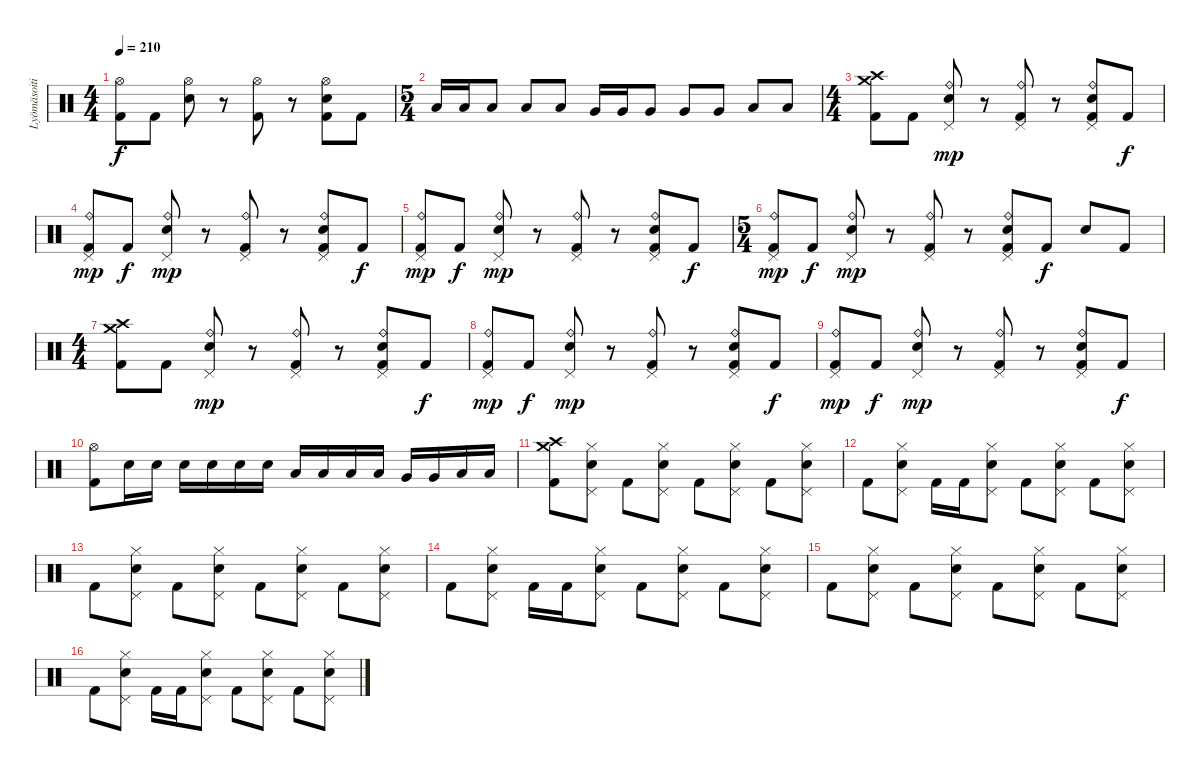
\track ("Lyömäsoitin" "Lyömäsoiti") {instrument percussion}
\staff {score}
\articulation defaults
\ts (4 4)
\tempo 210
\clef neutral
\ks c
("Hi-Hat (open)" "Kick (hit) 2").8{dy f} "Kick (hit) 2".8 ("Hi-Hat (open)" "Electric Snare (hit)").8 r.8 ("Hi-Hat (open)" "Kick (hit) 2").8 r.8 ("Hi-Hat (open)" "Electric Snare (hit)" "Kick (hit) 2").8 "Kick (hit) 2".8 |
\ts (5 4)
"Low Tom (hit)".16 "Low Tom (hit)".16 "Low Tom (hit)".8 "Low Tom (hit)".8 "Low Tom (hit)".8 "Very Low Tom (hit)".16 "Very Low Tom (hit)".16 "Very Low Tom (hit)".8 "Very Low Tom (hit)".8 "Very Low Tom (hit)".8 "Low Floor Tom (hit)".8 "Low Floor Tom (hit)".8 |
\ts (4 4)
("Crash medium (hit)" "Crash high (hit)" "Kick (hit) 2").8 "Kick (hit) 2".8 ("Ride (bell)" "Pedal Hi-Hat (hit)" "Electric Snare (hit)").8{dy mp} r.8 ("Ride (bell)" "Pedal Hi-Hat (hit)" "Kick (hit) 2").8 r.8 ("Ride (bell)" "Pedal Hi-Hat (hit)" "Electric Snare (hit)" "Kick (hit) 2").8 "Kick (hit) 2".8{dy f} |
("Ride (bell)" "Pedal Hi-Hat (hit)" "Kick (hit) 2").8{dy mp} "Kick (hit) 2".8{dy f} ("Ride (bell)" "Pedal Hi-Hat (hit)" "Electric Snare (hit)").8{dy mp} r.8 ("Ride (bell)" "Pedal Hi-Hat (hit)" "Kick (hit) 2").8 r.8 ("Ride (bell)" "Pedal Hi-Hat (hit)" "Electric Snare (hit)" "Kick (hit) 2").8 "Kick (hit) 2".8{dy f} |
("Ride (bell)" "Pedal Hi-Hat (hit)" "Kick (hit) 2").8{dy mp} "Kick (hit) 2".8{dy f} ("Ride (bell)" "Pedal Hi-Hat (hit)" "Electric Snare (hit)").8{dy mp} r.8 ("Ride (bell)" "Pedal Hi-Hat (hit)" "Kick (hit) 2").8 r.8 ("Ride (bell)" "Pedal Hi-Hat (hit)" "Electric Snare (hit)" "Kick (hit) 2").8 "Kick (hit) 2".8{dy f} |
\ts (5 4)
("Ride (bell)" "Pedal Hi-Hat (hit)" "Kick (hit) 2").8{dy mp} "Kick (hit) 2".8{dy f} ("Ride (bell)" "Pedal Hi-Hat (hit)" "Electric Snare (hit)").8{dy mp} r.8 ("Ride (bell)" "Pedal Hi-Hat (hit)" "Kick (hit) 2").8 r.8 ("Ride (bell)" "Pedal Hi-Hat (hit)" "Electric Snare (hit)" "Kick (hit) 2").8 "Kick (hit) 2".8{dy f} "Electric Snare (hit)".8 "Kick (hit) 2".8 |
\ts (4 4)
("Crash medium (hit)" "Crash high (hit)" "Kick (hit) 2").8 "Kick (hit) 2".8 ("Ride (bell)" "Pedal Hi-Hat (hit)" "Electric Snare (hit)").8{dy mp} r.8 ("Ride (bell)" "Pedal Hi-Hat (hit)" "Kick (hit) 2").8 r.8 ("Ride (bell)" "Pedal Hi-Hat (hit)" "Electric Snare (hit)" "Kick (hit) 2").8 "Kick (hit) 2".8{dy f} |
("Ride (bell)" "Pedal Hi-Hat (hit)" "Kick (hit) 2").8{dy mp} "Kick (hit) 2".8{dy f} ("Ride (bell)" "Pedal Hi-Hat (hit)" "Electric Snare (hit)").8{dy mp} r.8 ("Ride (bell)" "Pedal Hi-Hat (hit)" "Kick (hit) 2").8 r.8 ("Ride (bell)" "Pedal Hi-Hat (hit)" "Electric Snare (hit)" "Kick (hit) 2").8 "Kick (hit) 2".8{dy f} |
("Ride (bell)" "Pedal Hi-Hat (hit)" "Kick (hit) 2").8{dy mp} "Kick (hit) 2".8{dy f} ("Ride (bell)" "Pedal Hi-Hat (hit)" "Electric Snare (hit)").8{dy mp} r.8 ("Ride (bell)" "Pedal Hi-Hat (hit)" "Kick (hit) 2").8 r.8 ("Ride (bell)" "Pedal Hi-Hat (hit)" "Electric Snare (hit)" "Kick (hit) 2").8 "Kick (hit) 2".8{dy f} |
("Hi-Hat (open)" "Kick (hit) 2").8 "Electric Snare (hit)".16 "Electric Snare (hit)".16 "Electric Snare (hit)".16 "Electric Snare (hit)".16 "Electric Snare (hit)".16 "Electric Snare (hit)".16 "Low Tom (hit)".16 "Low Tom (hit)".16 "Low Tom (hit)".16 "Low Tom (hit)".16 "Very Low Tom (hit)".16 "Very Low Tom (hit)".16 "Low Floor Tom (hit)".16 "Low Floor Tom (hit)".16 |
("Crash high (hit)" "Crash medium (hit)" "Kick (hit) 2").8 ("Hi-Hat (closed)" "Pedal Hi-Hat (hit)" "Electric Snare (hit)").8 "Kick (hit) 2".8 ("Hi-Hat (closed)" "Pedal Hi-Hat (hit)" "Electric Snare (hit)").8 "Kick (hit) 2".8 ("Hi-Hat (closed)" "Pedal Hi-Hat (hit)" "Electric Snare (hit)").8 "Kick (hit) 2".8 ("Hi-Hat (closed)" "Pedal Hi-Hat (hit)" "Electric Snare (hit)").8 |
"Kick (hit) 2".8 ("Hi-Hat (closed)" "Pedal Hi-Hat (hit)" "Electric Snare (hit)").8 "Kick (hit) 2".16 "Kick (hit) 2".16 ("Hi-Hat (closed)" "Pedal Hi-Hat (hit)" "Electric Snare (hit)").8 "Kick (hit) 2".8 ("Hi-Hat (closed)" "Pedal Hi-Hat (hit)" "Electric Snare (hit)").8 "Kick (hit) 2".8 ("Hi-Hat (closed)" "Pedal Hi-Hat (hit)" "Electric Snare (hit)").8 |
"Kick (hit) 2".8 ("Hi-Hat (closed)" "Pedal Hi-Hat (hit)" "Electric Snare (hit)").8 "Kick (hit) 2".8 ("Hi-Hat (closed)" "Pedal Hi-Hat (hit)" "Electric Snare (hit)").8 "Kick (hit) 2".8 ("Hi-Hat (closed)" "Pedal Hi-Hat (hit)" "Electric Snare (hit)").8 "Kick (hit) 2".8 ("Hi-Hat (closed)" "Pedal Hi-Hat (hit)" "Electric Snare (hit)").8 |
"Kick (hit) 2".8 ("Hi-Hat (closed)" "Pedal Hi-Hat (hit)" "Electric Snare (hit)").8 "Kick (hit) 2".16 "Kick (hit) 2".16 ("Hi-Hat (closed)" "Pedal Hi-Hat (hit)" "Electric Snare (hit)").8 "Kick (hit) 2".8 ("Hi-Hat (closed)" "Pedal Hi-Hat (hit)" "Electric Snare (hit)").8 "Kick (hit) 2".8 ("Hi-Hat (closed)" "Pedal Hi-Hat (hit)" "Electric Snare (hit)").8 |
"Kick (hit) 2".8 ("Hi-Hat (closed)" "Pedal Hi-Hat (hit)" "Electric Snare (hit)").8 "Kick (hit) 2".8 ("Hi-Hat (closed)" "Pedal Hi-Hat (hit)" "Electric Snare (hit)").8 "Kick (hit) 2".8 ("Hi-Hat (closed)" "Pedal Hi-Hat (hit)" "Electric Snare (hit)").8 "Kick (hit) 2".8 ("Hi-Hat (closed)" "Pedal Hi-Hat (hit)" "Electric Snare (hit)").8 |
"Kick (hit) 2".8 ("Hi-Hat (closed)" "Pedal Hi-Hat (hit)" "Electric Snare (hit)").8 "Kick (hit) 2".16 "Kick (hit) 2".16 ("Hi-Hat (closed)" "Pedal Hi-Hat (hit)" "Electric Snare (hit)").8 "Kick (hit) 2".8 ("Hi-Hat (closed)" "Pedal Hi-Hat (hit)" "Electric Snare (hit)").8 "Kick (hit) 2".8 ("Hi-Hat (closed)" "Pedal Hi-Hat (hit)" "Electric Snare (hit)").8
